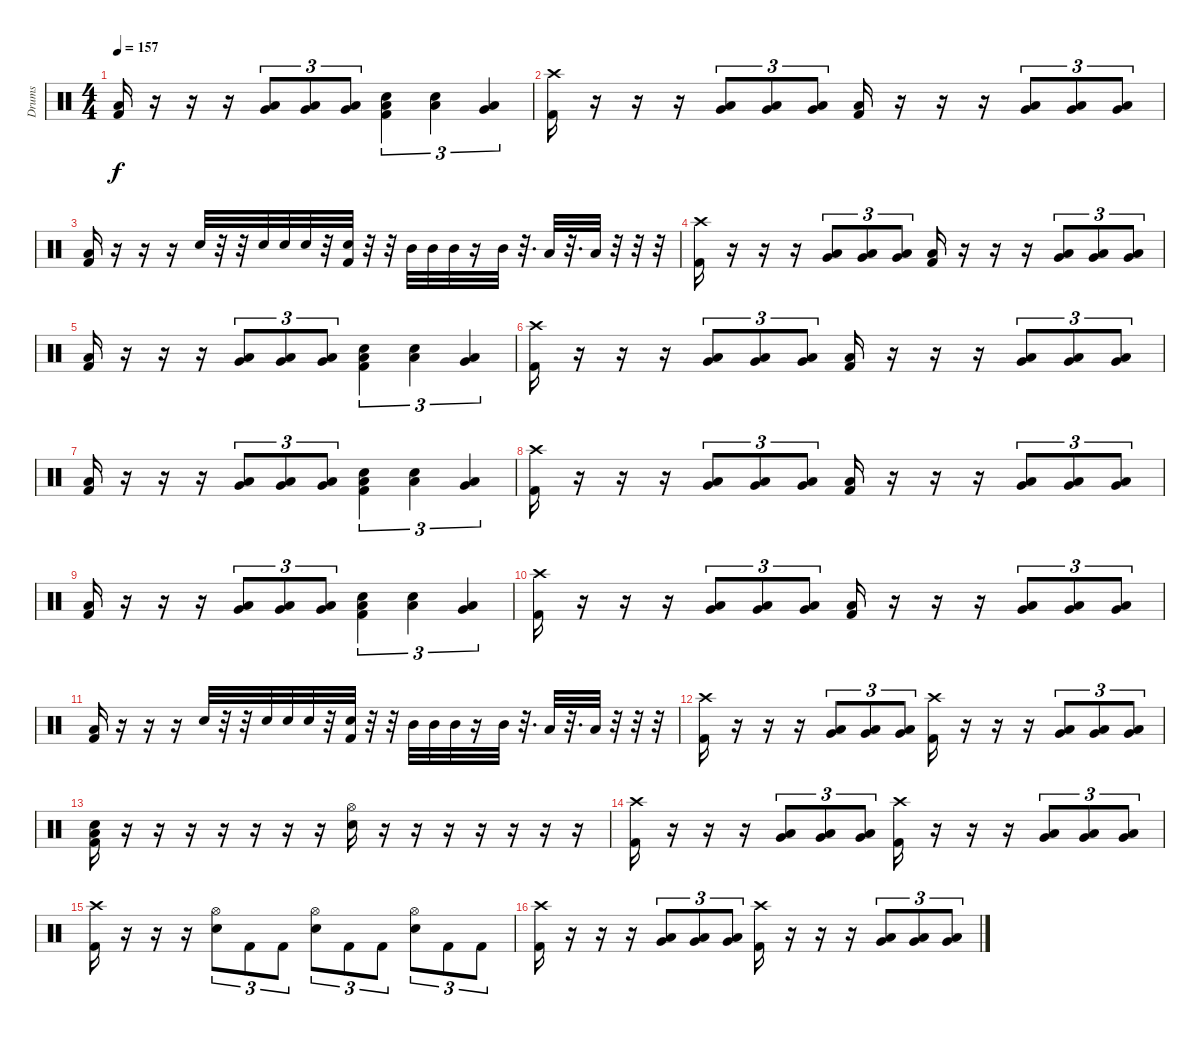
\track ("Drums" "Drums") {instrument percussion}
\staff {score}
\articulation defaults
\ts (4 4)
\tempo 157
\clef neutral
\ks c
("Low Tom (hit)" "Kick (hit) 2").16{dy f} r.16 r.16 r.16 ("Very Low Tom (hit)" "Low Tom (hit)").8{tu (3 2)} ("Very Low Tom (hit)" "Low Tom (hit)").8{tu (3 2)} ("Very Low Tom (hit)" "Low Tom (hit)").8{tu (3 2)} ("Low Tom (hit)" "Snare (hit) 2" "Kick (hit) 2").4{tu (3 2)} ("Low Tom (hit)" "Snare (hit) 2").4{tu (3 2)} ("Very Low Tom (hit)" "Low Tom (hit)").4{tu (3 2)} |
("Crash high (hit)" "Kick (hit) 2").16 r.16 r.16 r.16 ("Very Low Tom (hit)" "Low Tom (hit)").8{tu (3 2)} ("Very Low Tom (hit)" "Low Tom (hit)").8{tu (3 2)} ("Very Low Tom (hit)" "Low Tom (hit)").8{tu (3 2)} ("Low Tom (hit)" "Kick (hit) 2").16 r.16 r.16 r.16 ("Very Low Tom (hit)" "Low Tom (hit)").8{tu (3 2)} ("Very Low Tom (hit)" "Low Tom (hit)").8{tu (3 2)} ("Very Low Tom (hit)" "Low Tom (hit)").8{tu (3 2)} |
("Low Tom (hit)" "Kick (hit) 2").16 r.16 r.16 r.16 "Snare (hit) 2".32 r.32 r.32 "Snare (hit) 2".32 "Snare (hit) 2".32 "Snare (hit) 2".32 r.32 ("Snare (hit) 2" "Kick (hit) 2").32 r.32 r.32 "Mid Tom (hit)".32 "Mid Tom (hit)".32 "Mid Tom (hit)".32 r.16 "Mid Tom (hit)".32 r.32{d} "Low Tom (hit)".32 r.32{d} "Low Tom (hit)".32 r.32 r.32 r.32 |
("Crash high (hit)" "Kick (hit) 2").16 r.16 r.16 r.16 ("Very Low Tom (hit)" "Low Tom (hit)").8{tu (3 2)} ("Very Low Tom (hit)" "Low Tom (hit)").8{tu (3 2)} ("Very Low Tom (hit)" "Low Tom (hit)").8{tu (3 2)} ("Low Tom (hit)" "Kick (hit) 2").16 r.16 r.16 r.16 ("Very Low Tom (hit)" "Low Tom (hit)").8{tu (3 2)} ("Very Low Tom (hit)" "Low Tom (hit)").8{tu (3 2)} ("Very Low Tom (hit)" "Low Tom (hit)").8{tu (3 2)} |
("Low Tom (hit)" "Kick (hit) 2").16 r.16 r.16 r.16 ("Very Low Tom (hit)" "Low Tom (hit)").8{tu (3 2)} ("Very Low Tom (hit)" "Low Tom (hit)").8{tu (3 2)} ("Very Low Tom (hit)" "Low Tom (hit)").8{tu (3 2)} ("Low Tom (hit)" "Snare (hit) 2" "Kick (hit) 2").4{tu (3 2)} ("Low Tom (hit)" "Snare (hit) 2").4{tu (3 2)} ("Very Low Tom (hit)" "Low Tom (hit)").4{tu (3 2)} |
("Crash high (hit)" "Kick (hit) 2").16 r.16 r.16 r.16 ("Very Low Tom (hit)" "Low Tom (hit)").8{tu (3 2)} ("Very Low Tom (hit)" "Low Tom (hit)").8{tu (3 2)} ("Very Low Tom (hit)" "Low Tom (hit)").8{tu (3 2)} ("Low Tom (hit)" "Kick (hit) 2").16 r.16 r.16 r.16 ("Very Low Tom (hit)" "Low Tom (hit)").8{tu (3 2)} ("Very Low Tom (hit)" "Low Tom (hit)").8{tu (3 2)} ("Very Low Tom (hit)" "Low Tom (hit)").8{tu (3 2)} |
("Low Tom (hit)" "Kick (hit) 2").16 r.16 r.16 r.16 ("Very Low Tom (hit)" "Low Tom (hit)").8{tu (3 2)} ("Very Low Tom (hit)" "Low Tom (hit)").8{tu (3 2)} ("Very Low Tom (hit)" "Low Tom (hit)").8{tu (3 2)} ("Low Tom (hit)" "Snare (hit) 2" "Kick (hit) 2").4{tu (3 2)} ("Low Tom (hit)" "Snare (hit) 2").4{tu (3 2)} ("Very Low Tom (hit)" "Low Tom (hit)").4{tu (3 2)} |
("Crash high (hit)" "Kick (hit) 2").16 r.16 r.16 r.16 ("Very Low Tom (hit)" "Low Tom (hit)").8{tu (3 2)} ("Very Low Tom (hit)" "Low Tom (hit)").8{tu (3 2)} ("Very Low Tom (hit)" "Low Tom (hit)").8{tu (3 2)} ("Low Tom (hit)" "Kick (hit) 2").16 r.16 r.16 r.16 ("Very Low Tom (hit)" "Low Tom (hit)").8{tu (3 2)} ("Very Low Tom (hit)" "Low Tom (hit)").8{tu (3 2)} ("Very Low Tom (hit)" "Low Tom (hit)").8{tu (3 2)} |
("Low Tom (hit)" "Kick (hit) 2").16 r.16 r.16 r.16 ("Very Low Tom (hit)" "Low Tom (hit)").8{tu (3 2)} ("Very Low Tom (hit)" "Low Tom (hit)").8{tu (3 2)} ("Very Low Tom (hit)" "Low Tom (hit)").8{tu (3 2)} ("Low Tom (hit)" "Snare (hit) 2" "Kick (hit) 2").4{tu (3 2)} ("Low Tom (hit)" "Snare (hit) 2").4{tu (3 2)} ("Very Low Tom (hit)" "Low Tom (hit)").4{tu (3 2)} |
("Crash high (hit)" "Kick (hit) 2").16 r.16 r.16 r.16 ("Very Low Tom (hit)" "Low Tom (hit)").8{tu (3 2)} ("Very Low Tom (hit)" "Low Tom (hit)").8{tu (3 2)} ("Very Low Tom (hit)" "Low Tom (hit)").8{tu (3 2)} ("Low Tom (hit)" "Kick (hit) 2").16 r.16 r.16 r.16 ("Very Low Tom (hit)" "Low Tom (hit)").8{tu (3 2)} ("Very Low Tom (hit)" "Low Tom (hit)").8{tu (3 2)} ("Very Low Tom (hit)" "Low Tom (hit)").8{tu (3 2)} |
("Low Tom (hit)" "Kick (hit) 2").16 r.16 r.16 r.16 "Snare (hit) 2".32 r.32 r.32 "Snare (hit) 2".32 "Snare (hit) 2".32 "Snare (hit) 2".32 r.32 ("Snare (hit) 2" "Kick (hit) 2").32 r.32 r.32 "Mid Tom (hit)".32 "Mid Tom (hit)".32 "Mid Tom (hit)".32 r.16 "Mid Tom (hit)".32 r.32{d} "Low Tom (hit)".32 r.32{d} "Low Tom (hit)".32 r.32 r.32 r.32 |
("Crash high (hit)" "Kick (hit) 2").16 r.16 r.16 r.16 ("Very Low Tom (hit)" "Low Tom (hit)").8{tu (3 2)} ("Very Low Tom (hit)" "Low Tom (hit)").8{tu (3 2)} ("Very Low Tom (hit)" "Low Tom (hit)").8{tu (3 2)} ("Crash high (hit)" "Kick (hit) 2").16 r.16 r.16 r.16 ("Very Low Tom (hit)" "Low Tom (hit)").8{tu (3 2)} ("Very Low Tom (hit)" "Low Tom (hit)").8{tu (3 2)} ("Very Low Tom (hit)" "Low Tom (hit)").8{tu (3 2)} |
("Low Tom (hit)" "Snare (hit) 2" "Kick (hit) 2").16 r.16 r.16 r.16 r.16 r.16 r.16 r.16 ("Hi-Hat (open)" "Snare (hit) 2").16 r.16 r.16 r.16 r.16 r.16 r.16 r.16 |
("Crash high (hit)" "Kick (hit) 2").16 r.16 r.16 r.16 ("Very Low Tom (hit)" "Low Tom (hit)").8{tu (3 2)} ("Very Low Tom (hit)" "Low Tom (hit)").8{tu (3 2)} ("Very Low Tom (hit)" "Low Tom (hit)").8{tu (3 2)} ("Crash high (hit)" "Kick (hit) 2").16 r.16 r.16 r.16 ("Very Low Tom (hit)" "Low Tom (hit)").8{tu (3 2)} ("Very Low Tom (hit)" "Low Tom (hit)").8{tu (3 2)} ("Very Low Tom (hit)" "Low Tom (hit)").8{tu (3 2)} |
("Crash high (hit)" "Kick (hit) 2").16 r.16 r.16 r.16 ("Hi-Hat (open)" "Snare (hit) 2").8{tu (3 2)} "Kick (hit) 2".8{tu (3 2)} "Kick (hit) 2".8{tu (3 2)} ("Hi-Hat (open)" "Snare (hit) 2").8{tu (3 2)} "Kick (hit) 2".8{tu (3 2)} "Kick (hit) 2".8{tu (3 2)} ("Hi-Hat (open)" "Snare (hit) 2").8{tu (3 2)} "Kick (hit) 2".8{tu (3 2)} "Kick (hit) 2".8{tu (3 2)} |
("Crash high (hit)" "Kick (hit) 2").16 r.16 r.16 r.16 ("Very Low Tom (hit)" "Low Tom (hit)").8{tu (3 2)} ("Very Low Tom (hit)" "Low Tom (hit)").8{tu (3 2)} ("Very Low Tom (hit)" "Low Tom (hit)").8{tu (3 2)} ("Crash high (hit)" "Kick (hit) 2").16 r.16 r.16 r.16 ("Very Low Tom (hit)" "Low Tom (hit)").8{tu (3 2)} ("Very Low Tom (hit)" "Low Tom (hit)").8{tu (3 2)} ("Very Low Tom (hit)" "Low Tom (hit)").8{tu (3 2)}
